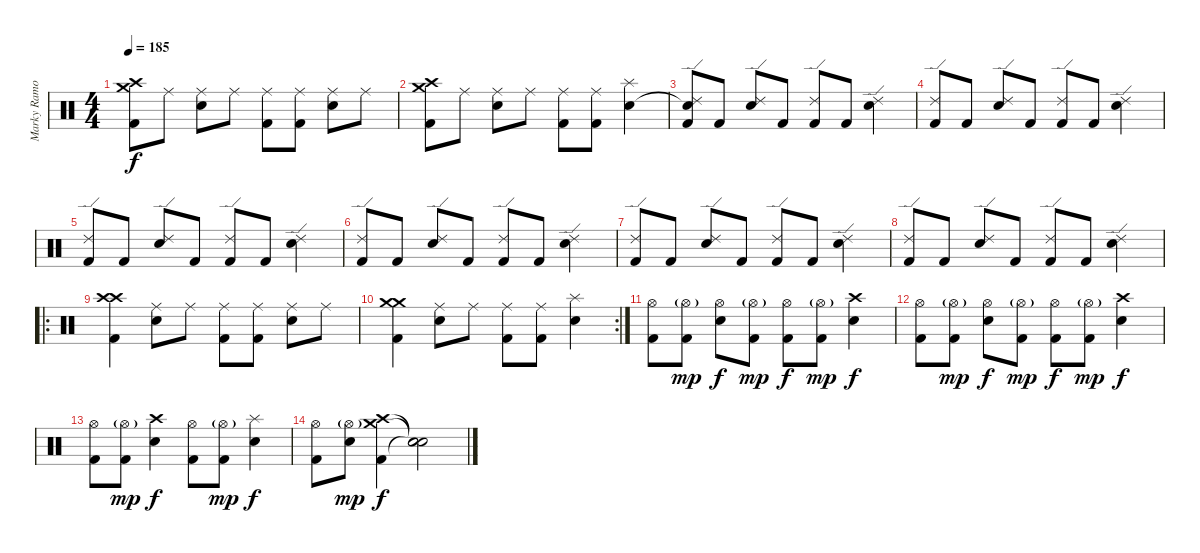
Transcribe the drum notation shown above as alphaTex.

\track ("Marky Ramone" "Marky Ramo") {instrument percussion}
\staff {score}
\articulation defaults
\ts (4 4)
\tempo 185
\clef neutral
\ks c
("Crash medium (hit)" "Crash high (hit)" "Kick (hit) 2").8{dy f} "Ride (middle)".8 ("Ride (middle)" "Electric Snare (hit)").8 "Ride (middle)".8 ("Ride (middle)" "Kick (hit) 2").8 ("Ride (middle)" "Kick (hit) 2").8 ("Ride (middle)" "Electric Snare (hit)").8 "Ride (middle)".8 |
("Crash medium (hit)" "Crash high (hit)" "Kick (hit) 2").8 "Ride (middle)".8 ("Ride (middle)" "Electric Snare (hit)").8 "Ride (middle)".8 ("Ride (middle)" "Kick (hit) 2").8 ("Ride (middle)" "Kick (hit) 2").8 ("Splash (hit)" "Electric Snare (hit)").4 |
("Ride (edge) 2" "Snare (hit)"{t} "Kick (hit) 2").8 "Kick (hit) 2".8 ("Ride (edge) 2" "Electric Snare (hit)").8 "Kick (hit) 2".8 ("Ride (edge) 2" "Kick (hit) 2").8 "Kick (hit) 2".8 ("Ride (edge) 2" "Electric Snare (hit)").4 |
("Ride (edge) 2" "Kick (hit) 2").8 "Kick (hit) 2".8 ("Ride (edge) 2" "Electric Snare (hit)").8 "Kick (hit) 2".8 ("Ride (edge) 2" "Kick (hit) 2").8 "Kick (hit) 2".8 ("Ride (edge) 2" "Electric Snare (hit)").4 |
("Ride (edge) 2" "Kick (hit) 2").8 "Kick (hit) 2".8 ("Ride (edge) 2" "Electric Snare (hit)").8 "Kick (hit) 2".8 ("Ride (edge) 2" "Kick (hit) 2").8 "Kick (hit) 2".8 ("Ride (edge) 2" "Electric Snare (hit)").4 |
("Ride (edge) 2" "Kick (hit) 2").8 "Kick (hit) 2".8 ("Ride (edge) 2" "Electric Snare (hit)").8 "Kick (hit) 2".8 ("Ride (edge) 2" "Kick (hit) 2").8 "Kick (hit) 2".8 ("Ride (edge) 2" "Electric Snare (hit)").4 |
("Ride (edge) 2" "Kick (hit) 2").8 "Kick (hit) 2".8 ("Ride (edge) 2" "Electric Snare (hit)").8 "Kick (hit) 2".8 ("Ride (edge) 2" "Kick (hit) 2").8 "Kick (hit) 2".8 ("Ride (edge) 2" "Electric Snare (hit)").4 |
("Ride (edge) 2" "Kick (hit) 2").8 "Kick (hit) 2".8 ("Ride (edge) 2" "Electric Snare (hit)").8 "Kick (hit) 2".8 ("Ride (edge) 2" "Kick (hit) 2").8 "Kick (hit) 2".8 ("Ride (edge) 2" "Electric Snare (hit)").4 |
\ro
("Crash high (hit)" "Crash high (hit)" "Kick (hit) 2").4 ("Ride (middle)" "Electric Snare (hit)").8 "Ride (middle)".8 ("Ride (middle)" "Kick (hit) 2").8 ("Ride (middle)" "Kick (hit) 2").8 ("Ride (middle)" "Electric Snare (hit)").8 "Ride (middle)".8 |
\rc 2
("Crash medium (hit)" "Crash medium (hit)" "Kick (hit) 2").4 ("Ride (middle)" "Electric Snare (hit)").8 "Ride (middle)".8 ("Ride (middle)" "Kick (hit) 2").8 ("Ride (middle)" "Kick (hit) 2").8 ("Splash (hit)" "Electric Snare (hit)").4 |
("Hi-Hat (open)" "Kick (hit) 2").8 ("Hi-Hat (open)"{g} "Kick (hit) 2").8{dy mp} ("Hi-Hat (open)" "Electric Snare (hit)").8{dy f} ("Hi-Hat (open)"{g} "Kick (hit) 2").8{dy mp} ("Hi-Hat (open)" "Kick (hit) 2").8{dy f} ("Hi-Hat (open)"{g} "Kick (hit) 2").8{dy mp} ("Crash high (hit)" "Electric Snare (hit)").4{dy f} |
("Hi-Hat (open)" "Kick (hit) 2").8 ("Hi-Hat (open)"{g} "Kick (hit) 2").8{dy mp} ("Hi-Hat (open)" "Electric Snare (hit)").8{dy f} ("Hi-Hat (open)"{g} "Kick (hit) 2").8{dy mp} ("Hi-Hat (open)" "Kick (hit) 2").8{dy f} ("Hi-Hat (open)"{g} "Kick (hit) 2").8{dy mp} ("Crash high (hit)" "Electric Snare (hit)").4{dy f} |
("Hi-Hat (open)" "Kick (hit) 2").8 ("Hi-Hat (open)"{g} "Kick (hit) 2").8{dy mp} ("Crash high (hit)" "Electric Snare (hit)").4{dy f} ("Hi-Hat (open)" "Kick (hit) 2").8 ("Hi-Hat (open)"{g} "Kick (hit) 2").8{dy mp} ("Splash (hit)" "Electric Snare (hit)").4{dy f} |
("Hi-Hat (open)" "Kick (hit) 2").8 ("Hi-Hat (open)"{g} "Electric Snare (hit)").8{dy mp} ("Crash high (hit)" "Crash medium (hit)" "Kick (hit) 2").4{dy f} ("Snare (hit)"{t} "Snare (hit)"{t} "Snare (hit)"{t}).2
